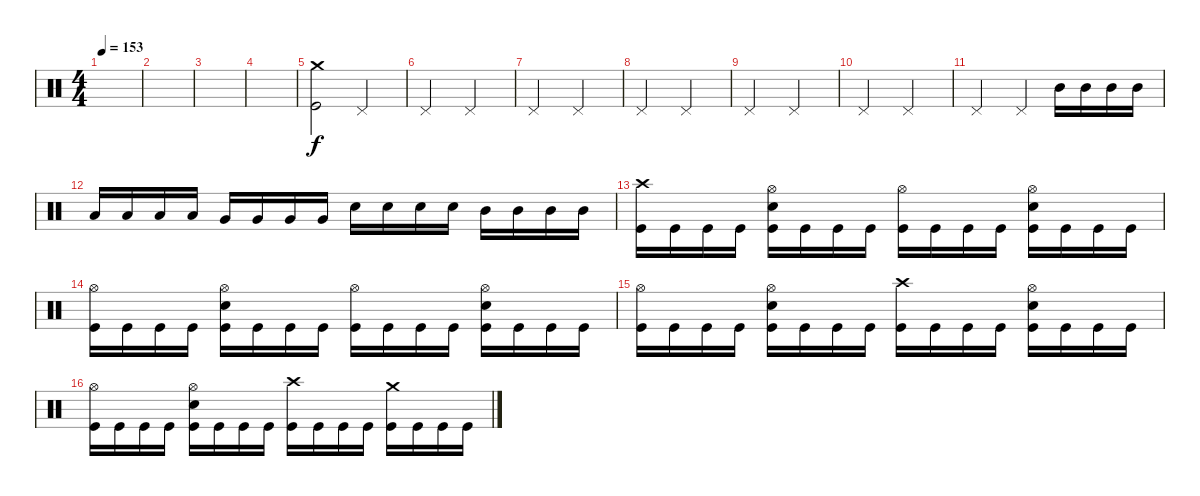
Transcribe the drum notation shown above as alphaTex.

\track "" {instrument percussion}
\staff {score}
\articulation defaults
\ts (4 4)
\tempo 153
\clef neutral
\ks c
|
|
|
|
("Kick (hit)" "Crash medium (hit)").2 "Pedal Hi-Hat (hit)".2 |
"Pedal Hi-Hat (hit)".2 "Pedal Hi-Hat (hit)".2 |
"Pedal Hi-Hat (hit)".2 "Pedal Hi-Hat (hit)".2 |
"Pedal Hi-Hat (hit)".2 "Pedal Hi-Hat (hit)".2 |
"Pedal Hi-Hat (hit)".2 "Pedal Hi-Hat (hit)".2 |
"Pedal Hi-Hat (hit)".2 "Pedal Hi-Hat (hit)".2 |
"Pedal Hi-Hat (hit)".2 "Pedal Hi-Hat (hit)".4 "Mid Tom (hit)".16 "Mid Tom (hit)".16 "Mid Tom (hit)".16 "Mid Tom (hit)".16 |
"Low Tom (hit)".16 "Low Tom (hit)".16 "Low Tom (hit)".16 "Low Tom (hit)".16 "Very Low Tom (hit)".16 "Very Low Tom (hit)".16 "Very Low Tom (hit)".16 "Very Low Tom (hit)".16 "Snare (hit) 2".16 "Snare (hit) 2".16 "Snare (hit) 2".16 "Snare (hit) 2".16 "Mid Tom (hit)".16 "Mid Tom (hit)".16 "Mid Tom (hit)".16 "Mid Tom (hit)".16 |
("Kick (hit)" "Crash high (hit)").16 "Kick (hit)".16 "Kick (hit)".16 "Kick (hit)".16 ("Kick (hit)" "Snare (hit) 2" "Hi-Hat (open)").16 "Kick (hit)".16 "Kick (hit)".16 "Kick (hit)".16 ("Kick (hit)" "Hi-Hat (open)").16 "Kick (hit)".16 "Kick (hit)".16 "Kick (hit)".16 ("Kick (hit)" "Snare (hit) 2" "Hi-Hat (open)").16 "Kick (hit)".16 "Kick (hit)".16 "Kick (hit)".16 |
("Kick (hit)" "Hi-Hat (open)").16 "Kick (hit)".16 "Kick (hit)".16 "Kick (hit)".16 ("Kick (hit)" "Snare (hit) 2" "Hi-Hat (open)").16 "Kick (hit)".16 "Kick (hit)".16 "Kick (hit)".16 ("Kick (hit)" "Hi-Hat (open)").16 "Kick (hit)".16 "Kick (hit)".16 "Kick (hit)".16 ("Kick (hit)" "Hi-Hat (open)" "Snare (hit) 2").16 "Kick (hit)".16 "Kick (hit)".16 "Kick (hit)".16 |
("Kick (hit)" "Hi-Hat (open)").16 "Kick (hit)".16 "Kick (hit)".16 "Kick (hit)".16 ("Kick (hit)" "Snare (hit) 2" "Hi-Hat (open)").16 "Kick (hit)".16 "Kick (hit)".16 "Kick (hit)".16 ("Kick (hit)" "Crash high (hit)").16 "Kick (hit)".16 "Kick (hit)".16 "Kick (hit)".16 ("Kick (hit)" "Snare (hit) 2" "Hi-Hat (open)").16 "Kick (hit)".16 "Kick (hit)".16 "Kick (hit)".16 |
("Hi-Hat (open)" "Kick (hit)").16 "Kick (hit)".16 "Kick (hit)".16 "Kick (hit)".16 ("Kick (hit)" "Snare (hit) 2" "Hi-Hat (open)").16 "Kick (hit)".16 "Kick (hit)".16 "Kick (hit)".16 ("Kick (hit)" "Crash high (hit)").16 "Kick (hit)".16 "Kick (hit)".16 "Kick (hit)".16 ("Kick (hit)" "Crash medium (hit)").16 "Kick (hit)".16 "Kick (hit)".16 "Kick (hit)".16
